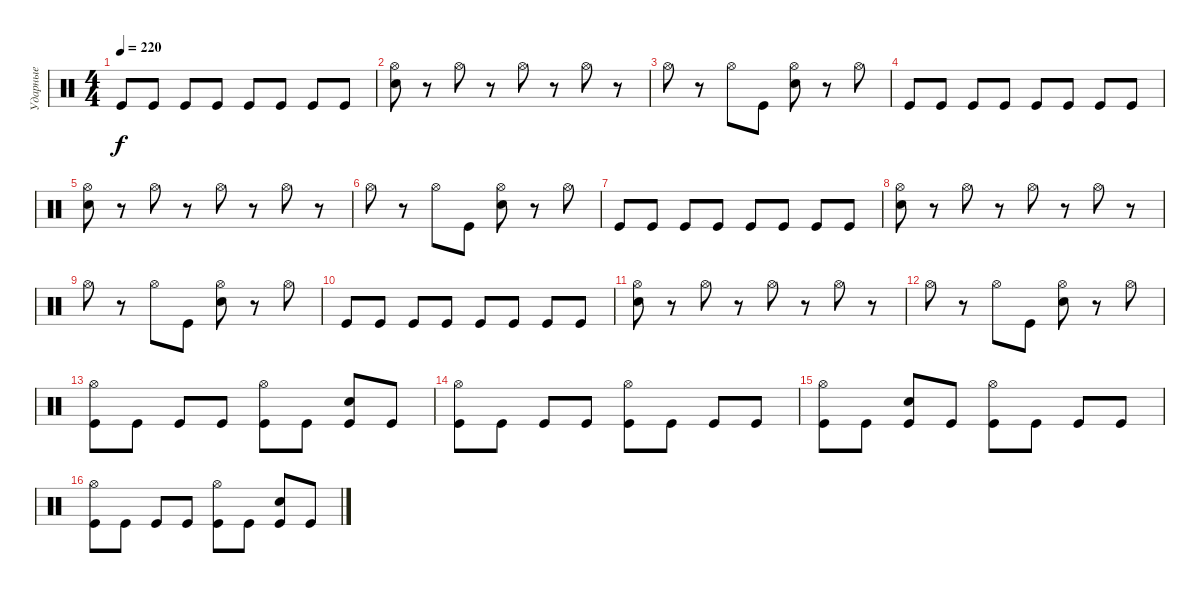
\track ("Ударные" "Ударные") {instrument percussion}
\staff {score}
\articulation defaults
\ts (4 4)
\tempo 220
\clef neutral
\ks c "Kick (hit)".8{dy f} "Kick (hit)".8 "Kick (hit)".8 "Kick (hit)".8 "Kick (hit)".8 "Kick (hit)".8 "Kick (hit)".8 "Kick (hit)".8
|
("Hi-Hat (open)" "Electric Snare (hit)").8 r.8 "Hi-Hat (open)".8 r.8 "Hi-Hat (open)".8 r.8 "Hi-Hat (open)".8 r.8 |
"Hi-Hat (open)".8 r.8 "Hi-Hat (open)".8 "Kick (hit)".8 ("Hi-Hat (open)" "Electric Snare (hit)").8 r.8 "Hi-Hat (open)".8 |
"Kick (hit)".8 "Kick (hit)".8 "Kick (hit)".8 "Kick (hit)".8 "Kick (hit)".8 "Kick (hit)".8 "Kick (hit)".8 "Kick (hit)".8 |
("Hi-Hat (open)" "Electric Snare (hit)").8 r.8 "Hi-Hat (open)".8 r.8 "Hi-Hat (open)".8 r.8 "Hi-Hat (open)".8 r.8 |
"Hi-Hat (open)".8 r.8 "Hi-Hat (open)".8 "Kick (hit)".8 ("Hi-Hat (open)" "Electric Snare (hit)").8 r.8 "Hi-Hat (open)".8 |
"Kick (hit)".8 "Kick (hit)".8 "Kick (hit)".8 "Kick (hit)".8 "Kick (hit)".8 "Kick (hit)".8 "Kick (hit)".8 "Kick (hit)".8 |
("Hi-Hat (open)" "Electric Snare (hit)").8 r.8 "Hi-Hat (open)".8 r.8 "Hi-Hat (open)".8 r.8 "Hi-Hat (open)".8 r.8 |
"Hi-Hat (open)".8 r.8 "Hi-Hat (open)".8 "Kick (hit)".8 ("Hi-Hat (open)" "Electric Snare (hit)").8 r.8 "Hi-Hat (open)".8 |
"Kick (hit)".8 "Kick (hit)".8 "Kick (hit)".8 "Kick (hit)".8 "Kick (hit)".8 "Kick (hit)".8 "Kick (hit)".8 "Kick (hit)".8 |
("Hi-Hat (open)" "Electric Snare (hit)").8 r.8 "Hi-Hat (open)".8 r.8 "Hi-Hat (open)".8 r.8 "Hi-Hat (open)".8 r.8 |
"Hi-Hat (open)".8 r.8 "Hi-Hat (open)".8 "Kick (hit)".8 ("Hi-Hat (open)" "Electric Snare (hit)").8 r.8 "Hi-Hat (open)".8 |
("Hi-Hat (open)" "Kick (hit)").8 "Kick (hit)".8 "Kick (hit)".8 "Kick (hit)".8 ("Hi-Hat (open)" "Kick (hit)").8 "Kick (hit)".8 ("Electric Snare (hit)" "Kick (hit)").8 "Kick (hit)".8 |
("Hi-Hat (open)" "Kick (hit)").8 "Kick (hit)".8 "Kick (hit)".8 "Kick (hit)".8 ("Hi-Hat (open)" "Kick (hit)").8 "Kick (hit)".8 "Kick (hit)".8 "Kick (hit)".8 |
("Hi-Hat (open)" "Kick (hit)").8 "Kick (hit)".8 ("Electric Snare (hit)" "Kick (hit)").8 "Kick (hit)".8 ("Hi-Hat (open)" "Kick (hit)").8 "Kick (hit)".8 "Kick (hit)".8 "Kick (hit)".8 |
("Hi-Hat (open)" "Kick (hit)").8 "Kick (hit)".8 "Kick (hit)".8 "Kick (hit)".8 ("Hi-Hat (open)" "Kick (hit)").8 "Kick (hit)".8 ("Electric Snare (hit)" "Kick (hit)").8 "Kick (hit)".8
